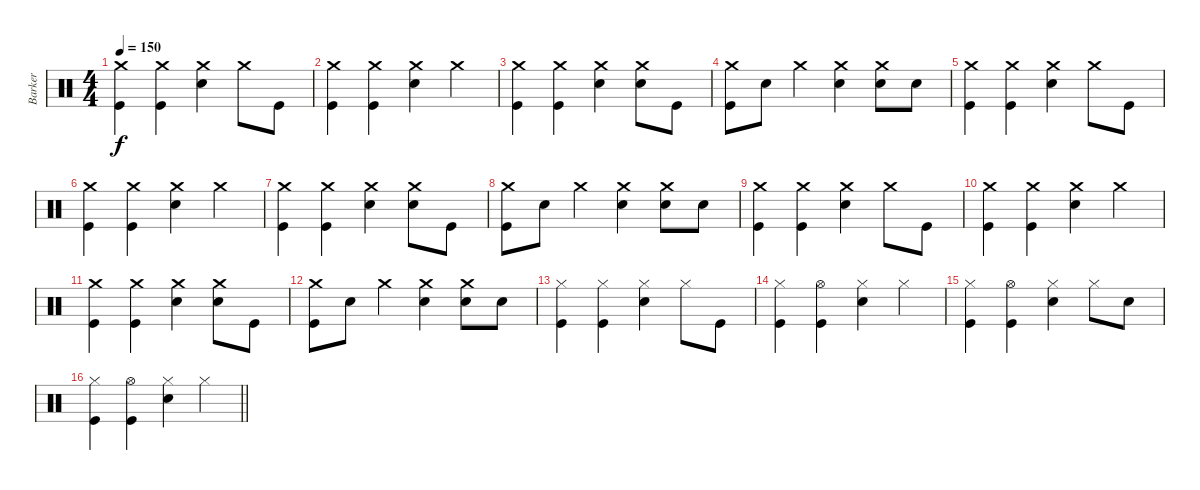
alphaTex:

\track ("Barker" "Barker") {instrument percussion}
\staff {score}
\articulation defaults
\ts (4 4)
\tempo 150
\clef neutral
\ks c
("Crash medium (hit)" "Kick (hit)").4{dy f} ("Crash medium (hit)" "Kick (hit)").4 ("Crash medium (hit)" "Electric Snare (hit)").4 "Crash medium (hit)".8 "Kick (hit)".8 |
("Crash medium (hit)" "Kick (hit)").4 ("Crash medium (hit)" "Kick (hit)").4 ("Crash medium (hit)" "Electric Snare (hit)").4 "Crash medium (hit)".4 |
("Crash medium (hit)" "Kick (hit)").4 ("Crash medium (hit)" "Kick (hit)").4 ("Crash medium (hit)" "Electric Snare (hit)").4 ("Crash medium (hit)" "Electric Snare (hit)").8 "Kick (hit)".8 |
("Crash medium (hit)" "Kick (hit)").8 "Electric Snare (hit)".8 "Crash medium (hit)".4 ("Crash medium (hit)" "Electric Snare (hit)").4 ("Electric Snare (hit)" "Crash medium (hit)").8 "Electric Snare (hit)".8 |
("Crash medium (hit)" "Kick (hit)").4 ("Crash medium (hit)" "Kick (hit)").4 ("Crash medium (hit)" "Electric Snare (hit)").4 "Crash medium (hit)".8 "Kick (hit)".8 |
("Crash medium (hit)" "Kick (hit)").4 ("Crash medium (hit)" "Kick (hit)").4 ("Crash medium (hit)" "Electric Snare (hit)").4 "Crash medium (hit)".4 |
("Crash medium (hit)" "Kick (hit)").4 ("Crash medium (hit)" "Kick (hit)").4 ("Crash medium (hit)" "Electric Snare (hit)").4 ("Crash medium (hit)" "Electric Snare (hit)").8 "Kick (hit)".8 |
("Crash medium (hit)" "Kick (hit)").8 "Electric Snare (hit)".8 "Crash medium (hit)".4 ("Crash medium (hit)" "Electric Snare (hit)").4 ("Electric Snare (hit)" "Crash medium (hit)").8 "Electric Snare (hit)".8 |
("Crash medium (hit)" "Kick (hit)").4 ("Crash medium (hit)" "Kick (hit)").4 ("Crash medium (hit)" "Electric Snare (hit)").4 "Crash medium (hit)".8 "Kick (hit)".8 |
("Crash medium (hit)" "Kick (hit)").4 ("Crash medium (hit)" "Kick (hit)").4 ("Crash medium (hit)" "Electric Snare (hit)").4 "Crash medium (hit)".4 |
("Crash medium (hit)" "Kick (hit)").4 ("Crash medium (hit)" "Kick (hit)").4 ("Crash medium (hit)" "Electric Snare (hit)").4 ("Crash medium (hit)" "Electric Snare (hit)").8 "Kick (hit)".8 |
("Crash medium (hit)" "Kick (hit)").8 "Electric Snare (hit)".8 "Crash medium (hit)".4 ("Crash medium (hit)" "Electric Snare (hit)").4 ("Electric Snare (hit)" "Crash medium (hit)").8 "Electric Snare (hit)".8 |
("Hi-Hat (closed)" "Kick (hit)").4 ("Hi-Hat (closed)" "Kick (hit)").4 ("Hi-Hat (closed)" "Electric Snare (hit)").4 "Hi-Hat (closed)".8 "Kick (hit)".8 |
("Hi-Hat (closed)" "Kick (hit)").4 ("Hi-Hat (open)" "Kick (hit)").4 ("Hi-Hat (closed)" "Electric Snare (hit)").4 "Hi-Hat (closed)".4 |
("Hi-Hat (closed)" "Kick (hit)").4 ("Hi-Hat (open)" "Kick (hit)").4 ("Hi-Hat (closed)" "Electric Snare (hit)").4 "Hi-Hat (closed)".8 "Electric Snare (hit)".8 |
\barLineRight lightlight
("Hi-Hat (closed)" "Kick (hit)").4 ("Hi-Hat (open)" "Kick (hit)").4 ("Hi-Hat (closed)" "Electric Snare (hit)").4 "Hi-Hat (closed)".4
